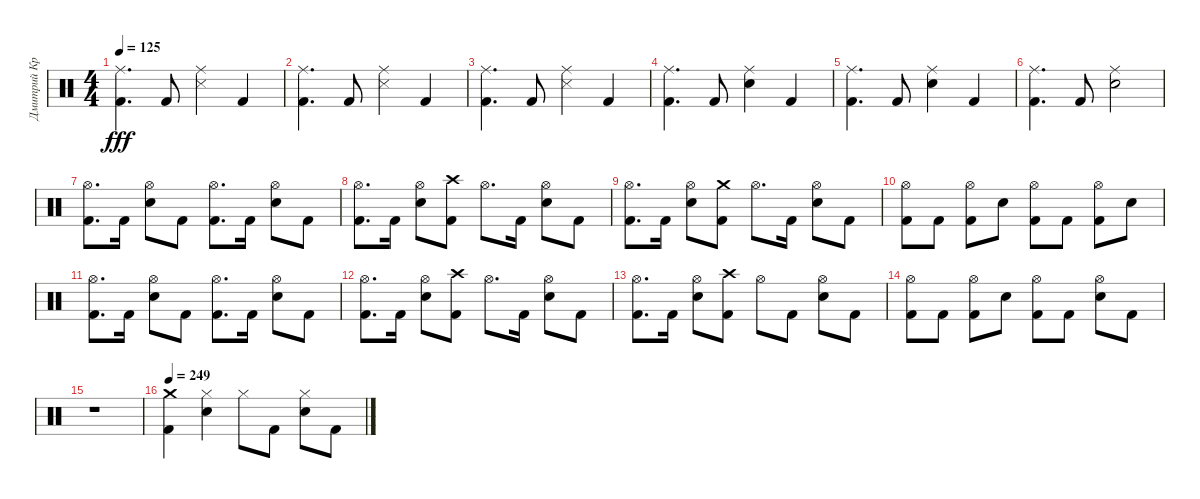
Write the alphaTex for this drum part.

\track ("Дмитрий Кривенков" "Дмитрий Кр") {instrument percussion}
\staff {score}
\articulation defaults
\ts (4 4)
\tempo 125
\clef neutral
\ks c
("Ride (middle)" "Kick (hit) 2").4{d dy fff} "Kick (hit) 2".8 ("Ride (middle)" "Snare (side stick) 3").4 "Kick (hit) 2".4 |
("Ride (middle)" "Kick (hit) 2").4{d} "Kick (hit) 2".8 ("Ride (middle)" "Snare (side stick) 3").4 "Kick (hit) 2".4 |
("Ride (middle)" "Kick (hit) 2").4{d} "Kick (hit) 2".8 ("Snare (side stick) 3" "Ride (middle)").4 "Kick (hit) 2".4 |
("Ride (middle)" "Kick (hit) 2").4{d} "Kick (hit) 2".8 ("Ride (middle)" "Electric Snare (hit)").4 "Kick (hit) 2".4 |
("Ride (middle)" "Kick (hit) 2").4{d} "Kick (hit) 2".8 ("Ride (middle)" "Electric Snare (hit)").4 "Kick (hit) 2".4 |
("Ride (middle)" "Kick (hit) 2").4{d} "Kick (hit) 2".8 ("Ride (middle)" "Electric Snare (hit)").2 |
("Hi-Hat (open)" "Kick (hit) 2").8{d} "Kick (hit) 2".16 ("Hi-Hat (open)" "Electric Snare (hit)").8 "Kick (hit) 2".8 ("Hi-Hat (open)" "Kick (hit) 2").8{d} "Kick (hit) 2".16 ("Hi-Hat (open)" "Electric Snare (hit)").8 "Kick (hit) 2".8 |
("Hi-Hat (open)" "Kick (hit) 2").8{d} "Kick (hit) 2".16 ("Hi-Hat (open)" "Electric Snare (hit)").8 ("Crash high (hit)" "Kick (hit) 2").8 "Hi-Hat (open)".8{d} "Kick (hit) 2".16 ("Hi-Hat (open)" "Electric Snare (hit)").8 "Kick (hit) 2".8 |
("Hi-Hat (open)" "Kick (hit) 2").8{d} "Kick (hit) 2".16 ("Hi-Hat (open)" "Electric Snare (hit)").8 ("Kick (hit) 2" "Crash medium (hit)").8 "Hi-Hat (open)".8{d} "Kick (hit) 2".16 ("Hi-Hat (open)" "Electric Snare (hit)").8 "Kick (hit) 2".8 |
("Hi-Hat (open)" "Kick (hit) 2").8 "Kick (hit) 2".8 ("Hi-Hat (open)" "Kick (hit) 2").8 "Electric Snare (hit)".8 ("Kick (hit) 2" "Hi-Hat (open)").8 "Kick (hit) 2".8 ("Hi-Hat (open)" "Kick (hit) 2").8 "Electric Snare (hit)".8 |
("Hi-Hat (open)" "Kick (hit) 2").8{d} "Kick (hit) 2".16 ("Hi-Hat (open)" "Electric Snare (hit)").8 "Kick (hit) 2".8 ("Hi-Hat (open)" "Kick (hit) 2").8{d} "Kick (hit) 2".16 ("Hi-Hat (open)" "Electric Snare (hit)").8 "Kick (hit) 2".8 |
("Hi-Hat (open)" "Kick (hit) 2").8{d} "Kick (hit) 2".16 ("Hi-Hat (open)" "Electric Snare (hit)").8 ("Kick (hit) 2" "Crash high (hit)").8 "Hi-Hat (open)".8{d} "Kick (hit) 2".16 ("Hi-Hat (open)" "Electric Snare (hit)").8 "Kick (hit) 2".8 |
("Hi-Hat (open)" "Kick (hit) 2").8{d} "Kick (hit) 2".16 ("Hi-Hat (open)" "Electric Snare (hit)").8 ("Crash high (hit)" "Kick (hit) 2").8 "Hi-Hat (open)".8 "Kick (hit) 2".8 ("Hi-Hat (open)" "Electric Snare (hit)").8 "Kick (hit) 2".8 |
("Hi-Hat (open)" "Kick (hit) 2").8 "Kick (hit) 2".8 ("Hi-Hat (open)" "Kick (hit) 2").8 "Electric Snare (hit)".8 ("Hi-Hat (open)" "Kick (hit) 2").8 "Kick (hit) 2".8 ("Hi-Hat (open)" "Electric Snare (hit)").8 "Kick (hit) 2".8 |
r.1 |
\tempo 249
("Kick (hit) 2" "Crash medium (hit)").4 ("Hi-Hat (closed)" "Electric Snare (hit)").4 "Hi-Hat (closed)".8 "Kick (hit) 2".8 ("Hi-Hat (closed)" "Electric Snare (hit)").8 "Kick (hit) 2".8
